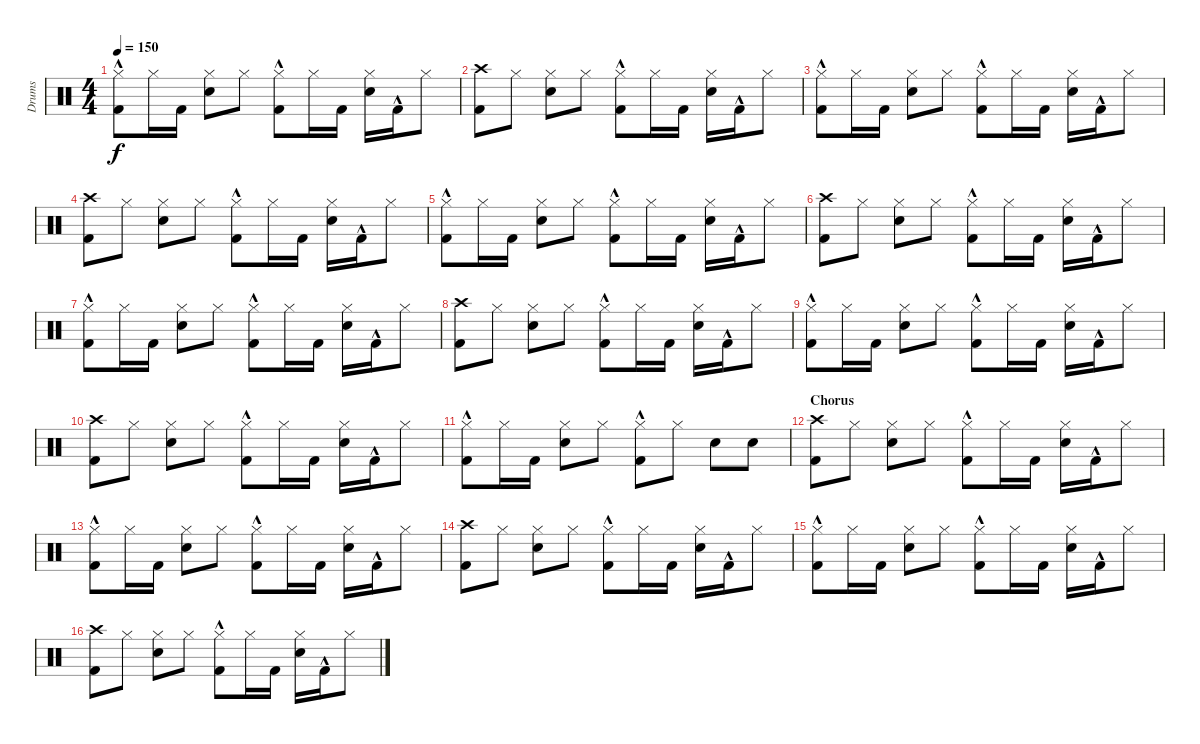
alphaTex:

\track ("Drums" "Drums") {instrument percussion}
\staff {score}
\articulation defaults
\ts (4 4)
\tempo 150
\clef neutral
\ks c
("Hi-Hat (closed)" "Kick (hit) 2"{hac}).8{dy f} "Hi-Hat (closed)".16 "Kick (hit) 2".16 ("Hi-Hat (closed)" "Electric Snare (hit)").8 "Hi-Hat (closed)".8 ("Hi-Hat (closed)" "Kick (hit) 2"{hac}).8 "Hi-Hat (closed)".16 "Kick (hit) 2".16 ("Hi-Hat (closed)" "Electric Snare (hit)").16 "Kick (hit) 2"{hac}.16 "Hi-Hat (closed)".8 |
("Crash high (hit)" "Kick (hit) 2").8 "Hi-Hat (closed)".8 ("Hi-Hat (closed)" "Electric Snare (hit)").8 "Hi-Hat (closed)".8 ("Hi-Hat (closed)" "Kick (hit) 2"{hac}).8 "Hi-Hat (closed)".16 "Kick (hit) 2".16 ("Hi-Hat (closed)" "Electric Snare (hit)").16 "Kick (hit) 2"{hac}.16 "Hi-Hat (closed)".8 |
("Hi-Hat (closed)" "Kick (hit) 2"{hac}).8 "Hi-Hat (closed)".16 "Kick (hit) 2".16 ("Hi-Hat (closed)" "Electric Snare (hit)").8 "Hi-Hat (closed)".8 ("Hi-Hat (closed)" "Kick (hit) 2"{hac}).8 "Hi-Hat (closed)".16 "Kick (hit) 2".16 ("Hi-Hat (closed)" "Electric Snare (hit)").16 "Kick (hit) 2"{hac}.16 "Hi-Hat (closed)".8 |
("Crash high (hit)" "Kick (hit) 2").8 "Hi-Hat (closed)".8 ("Hi-Hat (closed)" "Electric Snare (hit)").8 "Hi-Hat (closed)".8 ("Hi-Hat (closed)" "Kick (hit) 2"{hac}).8 "Hi-Hat (closed)".16 "Kick (hit) 2".16 ("Hi-Hat (closed)" "Electric Snare (hit)").16 "Kick (hit) 2"{hac}.16 "Hi-Hat (closed)".8 |
("Hi-Hat (closed)" "Kick (hit) 2"{hac}).8 "Hi-Hat (closed)".16 "Kick (hit) 2".16 ("Hi-Hat (closed)" "Electric Snare (hit)").8 "Hi-Hat (closed)".8 ("Hi-Hat (closed)" "Kick (hit) 2"{hac}).8 "Hi-Hat (closed)".16 "Kick (hit) 2".16 ("Hi-Hat (closed)" "Electric Snare (hit)").16 "Kick (hit) 2"{hac}.16 "Hi-Hat (closed)".8 |
("Crash high (hit)" "Kick (hit) 2").8 "Hi-Hat (closed)".8 ("Hi-Hat (closed)" "Electric Snare (hit)").8 "Hi-Hat (closed)".8 ("Hi-Hat (closed)" "Kick (hit) 2"{hac}).8 "Hi-Hat (closed)".16 "Kick (hit) 2".16 ("Hi-Hat (closed)" "Electric Snare (hit)").16 "Kick (hit) 2"{hac}.16 "Hi-Hat (closed)".8 |
("Hi-Hat (closed)" "Kick (hit) 2"{hac}).8 "Hi-Hat (closed)".16 "Kick (hit) 2".16 ("Hi-Hat (closed)" "Electric Snare (hit)").8 "Hi-Hat (closed)".8 ("Hi-Hat (closed)" "Kick (hit) 2"{hac}).8 "Hi-Hat (closed)".16 "Kick (hit) 2".16 ("Hi-Hat (closed)" "Electric Snare (hit)").16 "Kick (hit) 2"{hac}.16 "Hi-Hat (closed)".8 |
("Crash high (hit)" "Kick (hit) 2").8 "Hi-Hat (closed)".8 ("Hi-Hat (closed)" "Electric Snare (hit)").8 "Hi-Hat (closed)".8 ("Hi-Hat (closed)" "Kick (hit) 2"{hac}).8 "Hi-Hat (closed)".16 "Kick (hit) 2".16 ("Hi-Hat (closed)" "Electric Snare (hit)").16 "Kick (hit) 2"{hac}.16 "Hi-Hat (closed)".8 |
("Hi-Hat (closed)" "Kick (hit) 2"{hac}).8 "Hi-Hat (closed)".16 "Kick (hit) 2".16 ("Hi-Hat (closed)" "Electric Snare (hit)").8 "Hi-Hat (closed)".8 ("Hi-Hat (closed)" "Kick (hit) 2"{hac}).8 "Hi-Hat (closed)".16 "Kick (hit) 2".16 ("Hi-Hat (closed)" "Electric Snare (hit)").16 "Kick (hit) 2"{hac}.16 "Hi-Hat (closed)".8 |
("Crash high (hit)" "Kick (hit) 2").8 "Hi-Hat (closed)".8 ("Hi-Hat (closed)" "Electric Snare (hit)").8 "Hi-Hat (closed)".8 ("Hi-Hat (closed)" "Kick (hit) 2"{hac}).8 "Hi-Hat (closed)".16 "Kick (hit) 2".16 ("Hi-Hat (closed)" "Electric Snare (hit)").16 "Kick (hit) 2"{hac}.16 "Hi-Hat (closed)".8 |
("Hi-Hat (closed)" "Kick (hit) 2"{hac}).8 "Hi-Hat (closed)".16 "Kick (hit) 2".16 ("Hi-Hat (closed)" "Electric Snare (hit)").8 "Hi-Hat (closed)".8 ("Hi-Hat (closed)" "Kick (hit) 2"{hac}).8 "Hi-Hat (closed)".8 "Electric Snare (hit)".8 "Electric Snare (hit)".8 |
\section ("" "Chorus")
("Crash high (hit)" "Kick (hit) 2").8 "Hi-Hat (closed)".8 ("Hi-Hat (closed)" "Electric Snare (hit)").8 "Hi-Hat (closed)".8 ("Hi-Hat (closed)" "Kick (hit) 2"{hac}).8 "Hi-Hat (closed)".16 "Kick (hit) 2".16 ("Hi-Hat (closed)" "Electric Snare (hit)").16 "Kick (hit) 2"{hac}.16 "Hi-Hat (closed)".8 |
("Hi-Hat (closed)" "Kick (hit) 2"{hac}).8 "Hi-Hat (closed)".16 "Kick (hit) 2".16 ("Hi-Hat (closed)" "Electric Snare (hit)").8 "Hi-Hat (closed)".8 ("Hi-Hat (closed)" "Kick (hit) 2"{hac}).8 "Hi-Hat (closed)".16 "Kick (hit) 2".16 ("Hi-Hat (closed)" "Electric Snare (hit)").16 "Kick (hit) 2"{hac}.16 "Hi-Hat (closed)".8 |
("Crash high (hit)" "Kick (hit) 2").8 "Hi-Hat (closed)".8 ("Hi-Hat (closed)" "Electric Snare (hit)").8 "Hi-Hat (closed)".8 ("Hi-Hat (closed)" "Kick (hit) 2"{hac}).8 "Hi-Hat (closed)".16 "Kick (hit) 2".16 ("Hi-Hat (closed)" "Electric Snare (hit)").16 "Kick (hit) 2"{hac}.16 "Hi-Hat (closed)".8 |
("Hi-Hat (closed)" "Kick (hit) 2"{hac}).8 "Hi-Hat (closed)".16 "Kick (hit) 2".16 ("Hi-Hat (closed)" "Electric Snare (hit)").8 "Hi-Hat (closed)".8 ("Hi-Hat (closed)" "Kick (hit) 2"{hac}).8 "Hi-Hat (closed)".16 "Kick (hit) 2".16 ("Hi-Hat (closed)" "Electric Snare (hit)").16 "Kick (hit) 2"{hac}.16 "Hi-Hat (closed)".8 |
("Crash high (hit)" "Kick (hit) 2").8 "Hi-Hat (closed)".8 ("Hi-Hat (closed)" "Electric Snare (hit)").8 "Hi-Hat (closed)".8 ("Hi-Hat (closed)" "Kick (hit) 2"{hac}).8 "Hi-Hat (closed)".16 "Kick (hit) 2".16 ("Hi-Hat (closed)" "Electric Snare (hit)").16 "Kick (hit) 2"{hac}.16 "Hi-Hat (closed)".8
